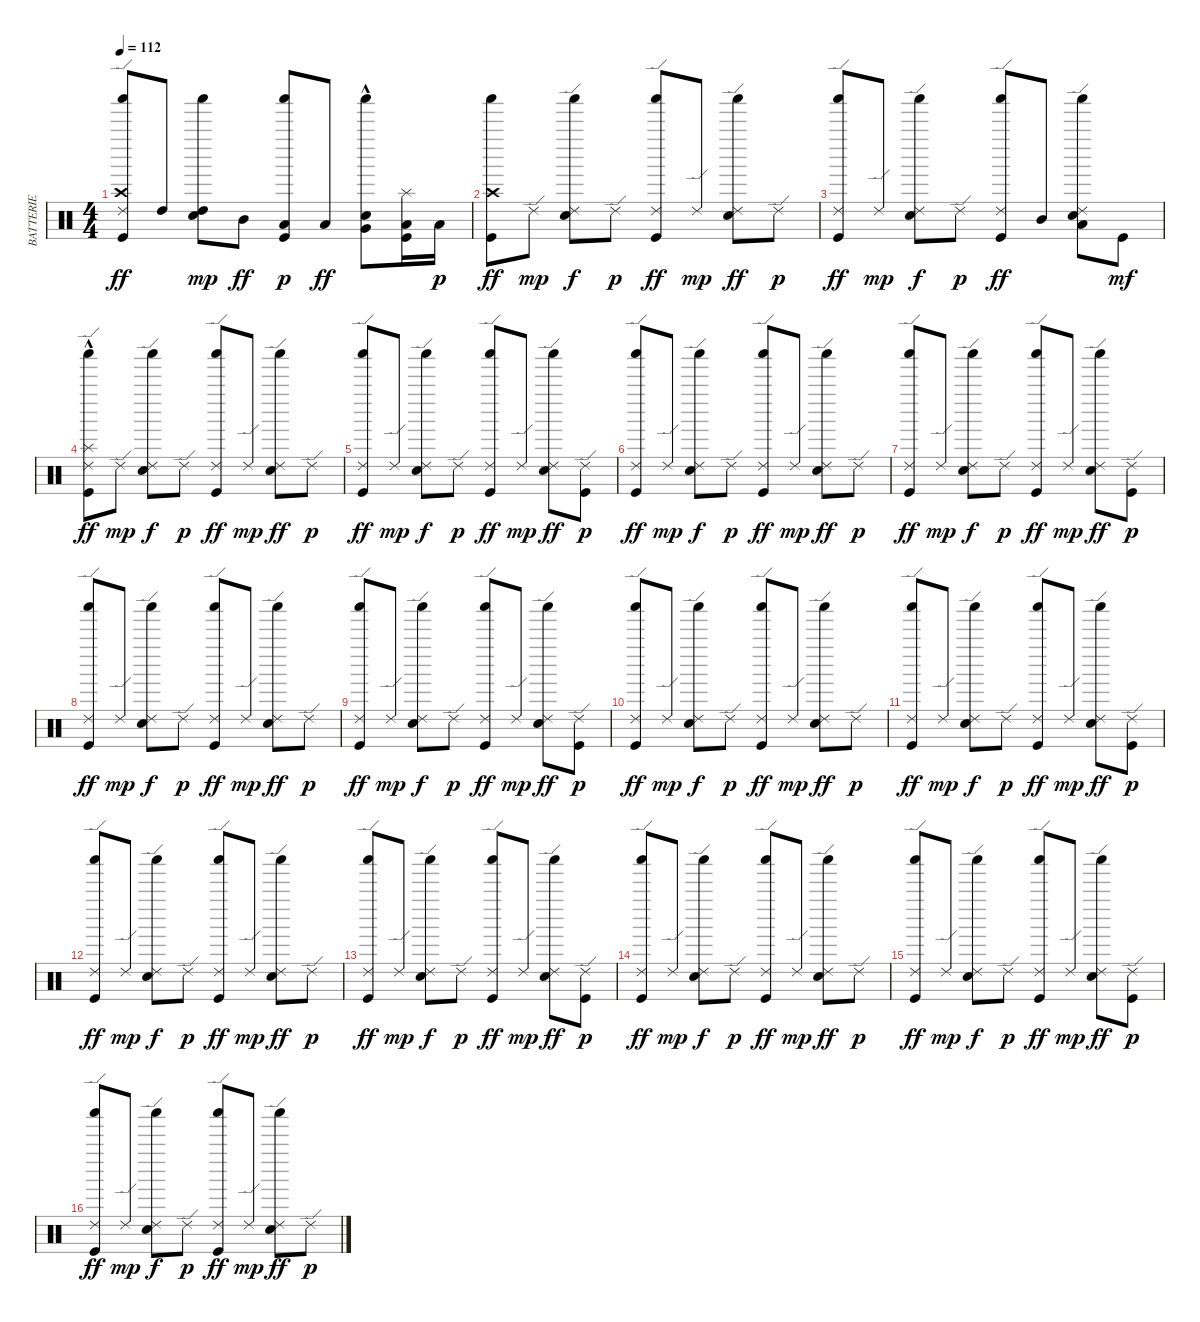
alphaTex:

\track ("BATTERIE" "BATTERIE") {instrument percussion}
\staff {score}
\articulation defaults
\ts (4 4)
\tempo 112
\clef neutral
\ks c
("Kick (hit)" "Crash high (hit)" "Shaker (hit)" "Ride (edge) 2").8{dy ff} "High Tom (hit)".8 ("Snare (hit) 2" "High Tom (hit)" "Shaker (hit)").8{dy mp} "Mid Tom (hit)".8{dy ff} ("Kick (hit)" "Low Tom (hit)" "Shaker (hit)").8{dy p} "Low Tom (hit)".8{dy ff} ("Snare (hit) 2" "Very Low Tom (hit)"{hac} "Shaker (hit)").8 ("Low Floor Tom (hit)" "Kick (hit)" "Splash (hit)").16 "Low Floor Tom (hit)".16{dy p} |
("Kick (hit)" "Shaker (hit)" "Crash high (hit)").8{dy ff} "Ride (edge) 2".8{dy mp} ("Snare (hit) 2" "Ride (edge) 2" "Shaker (hit)").8{dy f} "Ride (edge) 2".8{dy p} ("Kick (hit)" "Shaker (hit)" "Ride (edge) 2").8{dy ff} "Ride (edge) 2".8{dy mp} ("Snare (hit) 2" "Ride (edge) 2" "Shaker (hit)").8{dy ff} "Ride (edge) 2".8{dy p} |
("Kick (hit)" "Shaker (hit)" "Ride (edge) 2").8{dy ff} "Ride (edge) 2".8{dy mp} ("Snare (hit) 2" "Ride (edge) 2" "Shaker (hit)").8{dy f} "Ride (edge) 2".8{dy p} ("Kick (hit)" "Shaker (hit)" "Ride (edge) 2").8{dy ff} "Mid Tom (hit)".8 ("Snare (hit) 2" "Low Tom (hit)" "Ride (edge) 2" "Shaker (hit)").8 "Kick (hit)".8{dy mf} |
("Kick (hit)" "Shaker (hit)" "Splash (hit)"{hac} "Ride (edge) 2").8{dy ff} "Ride (edge) 2".8{dy mp} ("Snare (hit) 2" "Ride (edge) 2" "Shaker (hit)").8{dy f} "Ride (edge) 2".8{dy p} ("Kick (hit)" "Shaker (hit)" "Ride (edge) 2").8{dy ff} "Ride (edge) 2".8{dy mp} ("Snare (hit) 2" "Ride (edge) 2" "Shaker (hit)").8{dy ff} "Ride (edge) 2".8{dy p} |
("Kick (hit)" "Shaker (hit)" "Ride (edge) 2").8{dy ff} "Ride (edge) 2".8{dy mp} ("Snare (hit) 2" "Ride (edge) 2" "Shaker (hit)").8{dy f} "Ride (edge) 2".8{dy p} ("Kick (hit)" "Shaker (hit)" "Ride (edge) 2").8{dy ff} "Ride (edge) 2".8{dy mp} ("Snare (hit) 2" "Ride (edge) 2" "Shaker (hit)").8{dy ff} ("Kick (hit)" "Ride (edge) 2").8{dy p} |
("Kick (hit)" "Shaker (hit)" "Ride (edge) 2").8{dy ff} "Ride (edge) 2".8{dy mp} ("Snare (hit) 2" "Ride (edge) 2" "Shaker (hit)").8{dy f} "Ride (edge) 2".8{dy p} ("Kick (hit)" "Shaker (hit)" "Ride (edge) 2").8{dy ff} "Ride (edge) 2".8{dy mp} ("Snare (hit) 2" "Ride (edge) 2" "Shaker (hit)").8{dy ff} "Ride (edge) 2".8{dy p} |
("Kick (hit)" "Shaker (hit)" "Ride (edge) 2").8{dy ff} "Ride (edge) 2".8{dy mp} ("Snare (hit) 2" "Ride (edge) 2" "Shaker (hit)").8{dy f} "Ride (edge) 2".8{dy p} ("Kick (hit)" "Shaker (hit)" "Ride (edge) 2").8{dy ff} "Ride (edge) 2".8{dy mp} ("Snare (hit) 2" "Ride (edge) 2" "Shaker (hit)").8{dy ff} ("Kick (hit)" "Ride (edge) 2").8{dy p} |
("Kick (hit)" "Shaker (hit)" "Ride (edge) 2").8{dy ff} "Ride (edge) 2".8{dy mp} ("Snare (hit) 2" "Ride (edge) 2" "Shaker (hit)").8{dy f} "Ride (edge) 2".8{dy p} ("Kick (hit)" "Shaker (hit)" "Ride (edge) 2").8{dy ff} "Ride (edge) 2".8{dy mp} ("Snare (hit) 2" "Ride (edge) 2" "Shaker (hit)").8{dy ff} "Ride (edge) 2".8{dy p} |
("Kick (hit)" "Shaker (hit)" "Ride (edge) 2").8{dy ff} "Ride (edge) 2".8{dy mp} ("Snare (hit) 2" "Ride (edge) 2" "Shaker (hit)").8{dy f} "Ride (edge) 2".8{dy p} ("Kick (hit)" "Shaker (hit)" "Ride (edge) 2").8{dy ff} "Ride (edge) 2".8{dy mp} ("Snare (hit) 2" "Ride (edge) 2" "Shaker (hit)").8{dy ff} ("Kick (hit)" "Ride (edge) 2").8{dy p} |
("Kick (hit)" "Shaker (hit)" "Ride (edge) 2").8{dy ff} "Ride (edge) 2".8{dy mp} ("Snare (hit) 2" "Ride (edge) 2" "Shaker (hit)").8{dy f} "Ride (edge) 2".8{dy p} ("Kick (hit)" "Shaker (hit)" "Ride (edge) 2").8{dy ff} "Ride (edge) 2".8{dy mp} ("Snare (hit) 2" "Ride (edge) 2" "Shaker (hit)").8{dy ff} "Ride (edge) 2".8{dy p} |
("Kick (hit)" "Shaker (hit)" "Ride (edge) 2").8{dy ff} "Ride (edge) 2".8{dy mp} ("Snare (hit) 2" "Ride (edge) 2" "Shaker (hit)").8{dy f} "Ride (edge) 2".8{dy p} ("Kick (hit)" "Shaker (hit)" "Ride (edge) 2").8{dy ff} "Ride (edge) 2".8{dy mp} ("Snare (hit) 2" "Ride (edge) 2" "Shaker (hit)").8{dy ff} ("Kick (hit)" "Ride (edge) 2").8{dy p} |
("Kick (hit)" "Shaker (hit)" "Ride (edge) 2").8{dy ff} "Ride (edge) 2".8{dy mp} ("Snare (hit) 2" "Ride (edge) 2" "Shaker (hit)").8{dy f} "Ride (edge) 2".8{dy p} ("Kick (hit)" "Shaker (hit)" "Ride (edge) 2").8{dy ff} "Ride (edge) 2".8{dy mp} ("Snare (hit) 2" "Ride (edge) 2" "Shaker (hit)").8{dy ff} "Ride (edge) 2".8{dy p} |
("Kick (hit)" "Shaker (hit)" "Ride (edge) 2").8{dy ff} "Ride (edge) 2".8{dy mp} ("Snare (hit) 2" "Ride (edge) 2" "Shaker (hit)").8{dy f} "Ride (edge) 2".8{dy p} ("Kick (hit)" "Shaker (hit)" "Ride (edge) 2").8{dy ff} "Ride (edge) 2".8{dy mp} ("Snare (hit) 2" "Ride (edge) 2" "Shaker (hit)").8{dy ff} ("Kick (hit)" "Ride (edge) 2").8{dy p} |
("Kick (hit)" "Shaker (hit)" "Ride (edge) 2").8{dy ff} "Ride (edge) 2".8{dy mp} ("Snare (hit) 2" "Ride (edge) 2" "Shaker (hit)").8{dy f} "Ride (edge) 2".8{dy p} ("Kick (hit)" "Shaker (hit)" "Ride (edge) 2").8{dy ff} "Ride (edge) 2".8{dy mp} ("Snare (hit) 2" "Ride (edge) 2" "Shaker (hit)").8{dy ff} "Ride (edge) 2".8{dy p} |
("Kick (hit)" "Shaker (hit)" "Ride (edge) 2").8{dy ff} "Ride (edge) 2".8{dy mp} ("Snare (hit) 2" "Ride (edge) 2" "Shaker (hit)").8{dy f} "Ride (edge) 2".8{dy p} ("Kick (hit)" "Shaker (hit)" "Ride (edge) 2").8{dy ff} "Ride (edge) 2".8{dy mp} ("Snare (hit) 2" "Ride (edge) 2" "Shaker (hit)").8{dy ff} ("Kick (hit)" "Ride (edge) 2").8{dy p} |
("Kick (hit)" "Shaker (hit)" "Ride (edge) 2").8{dy ff} "Ride (edge) 2".8{dy mp} ("Snare (hit) 2" "Ride (edge) 2" "Shaker (hit)").8{dy f} "Ride (edge) 2".8{dy p} ("Kick (hit)" "Shaker (hit)" "Ride (edge) 2").8{dy ff} "Ride (edge) 2".8{dy mp} ("Snare (hit) 2" "Ride (edge) 2" "Shaker (hit)").8{dy ff} "Ride (edge) 2".8{dy p}
